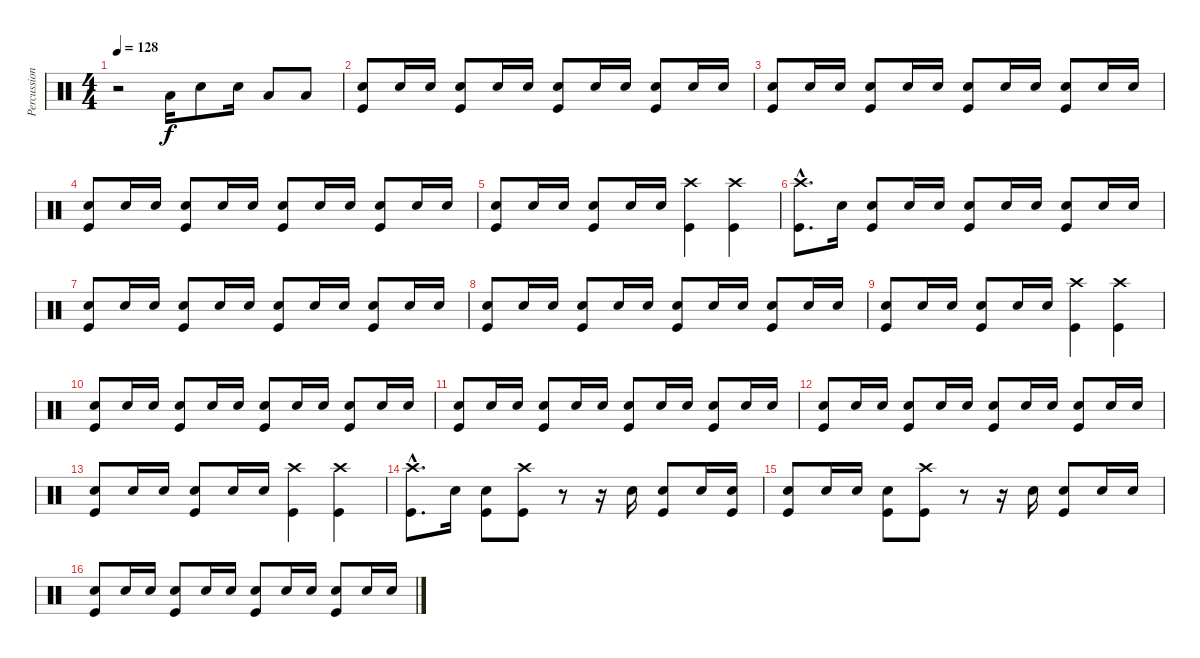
\track ("Percussion" "Percussion") {instrument percussion}
\staff {score}
\articulation defaults
\ts (4 4)
\tempo 128
\clef neutral
\ks c
r.2{dy f} "Low Tom (hit)".16 "Snare (hit) 2".8 "Snare (hit) 2".16 "Low Tom (hit)".8 "Low Tom (hit)".8 |
("Snare (hit) 2" "Kick (hit)").8 "Snare (hit) 2".16 "Snare (hit) 2".16 ("Snare (hit) 2" "Kick (hit)").8 "Snare (hit) 2".16 "Snare (hit) 2".16 ("Snare (hit) 2" "Kick (hit)").8 "Snare (hit) 2".16 "Snare (hit) 2".16 ("Snare (hit) 2" "Kick (hit)").8 "Snare (hit) 2".16 "Snare (hit) 2".16 |
("Snare (hit) 2" "Kick (hit)").8 "Snare (hit) 2".16 "Snare (hit) 2".16 ("Snare (hit) 2" "Kick (hit)").8 "Snare (hit) 2".16 "Snare (hit) 2".16 ("Snare (hit) 2" "Kick (hit)").8 "Snare (hit) 2".16 "Snare (hit) 2".16 ("Snare (hit) 2" "Kick (hit)").8 "Snare (hit) 2".16 "Snare (hit) 2".16 |
("Snare (hit) 2" "Kick (hit)").8 "Snare (hit) 2".16 "Snare (hit) 2".16 ("Snare (hit) 2" "Kick (hit)").8 "Snare (hit) 2".16 "Snare (hit) 2".16 ("Snare (hit) 2" "Kick (hit)").8 "Snare (hit) 2".16 "Snare (hit) 2".16 ("Snare (hit) 2" "Kick (hit)").8 "Snare (hit) 2".16 "Snare (hit) 2".16 |
("Snare (hit) 2" "Kick (hit)").8 "Snare (hit) 2".16 "Snare (hit) 2".16 ("Snare (hit) 2" "Kick (hit)").8 "Snare (hit) 2".16 "Snare (hit) 2".16 ("Crash high (hit)" "Kick (hit)").4 ("Crash high (hit)" "Kick (hit)").4 |
("Crash high (hit)"{hac} "Kick (hit)"{hac}).8{d} "Snare (hit) 2".16 ("Snare (hit) 2" "Kick (hit)").8 "Snare (hit) 2".16 "Snare (hit) 2".16 ("Snare (hit) 2" "Kick (hit)").8 "Snare (hit) 2".16 "Snare (hit) 2".16 ("Snare (hit) 2" "Kick (hit)").8 "Snare (hit) 2".16 "Snare (hit) 2".16 |
("Snare (hit) 2" "Kick (hit)").8 "Snare (hit) 2".16 "Snare (hit) 2".16 ("Snare (hit) 2" "Kick (hit)").8 "Snare (hit) 2".16 "Snare (hit) 2".16 ("Snare (hit) 2" "Kick (hit)").8 "Snare (hit) 2".16 "Snare (hit) 2".16 ("Snare (hit) 2" "Kick (hit)").8 "Snare (hit) 2".16 "Snare (hit) 2".16 |
("Snare (hit) 2" "Kick (hit)").8 "Snare (hit) 2".16 "Snare (hit) 2".16 ("Snare (hit) 2" "Kick (hit)").8 "Snare (hit) 2".16 "Snare (hit) 2".16 ("Snare (hit) 2" "Kick (hit)").8 "Snare (hit) 2".16 "Snare (hit) 2".16 ("Snare (hit) 2" "Kick (hit)").8 "Snare (hit) 2".16 "Snare (hit) 2".16 |
("Snare (hit) 2" "Kick (hit)").8 "Snare (hit) 2".16 "Snare (hit) 2".16 ("Snare (hit) 2" "Kick (hit)").8 "Snare (hit) 2".16 "Snare (hit) 2".16 ("Crash high (hit)" "Kick (hit)").4 ("Crash high (hit)" "Kick (hit)").4 |
("Snare (hit) 2" "Kick (hit)").8 "Snare (hit) 2".16 "Snare (hit) 2".16 ("Snare (hit) 2" "Kick (hit)").8 "Snare (hit) 2".16 "Snare (hit) 2".16 ("Snare (hit) 2" "Kick (hit)").8 "Snare (hit) 2".16 "Snare (hit) 2".16 ("Snare (hit) 2" "Kick (hit)").8 "Snare (hit) 2".16 "Snare (hit) 2".16 |
("Snare (hit) 2" "Kick (hit)").8 "Snare (hit) 2".16 "Snare (hit) 2".16 ("Snare (hit) 2" "Kick (hit)").8 "Snare (hit) 2".16 "Snare (hit) 2".16 ("Snare (hit) 2" "Kick (hit)").8 "Snare (hit) 2".16 "Snare (hit) 2".16 ("Snare (hit) 2" "Kick (hit)").8 "Snare (hit) 2".16 "Snare (hit) 2".16 |
("Snare (hit) 2" "Kick (hit)").8 "Snare (hit) 2".16 "Snare (hit) 2".16 ("Snare (hit) 2" "Kick (hit)").8 "Snare (hit) 2".16 "Snare (hit) 2".16 ("Snare (hit) 2" "Kick (hit)").8 "Snare (hit) 2".16 "Snare (hit) 2".16 ("Snare (hit) 2" "Kick (hit)").8 "Snare (hit) 2".16 "Snare (hit) 2".16 |
("Snare (hit) 2" "Kick (hit)").8 "Snare (hit) 2".16 "Snare (hit) 2".16 ("Snare (hit) 2" "Kick (hit)").8 "Snare (hit) 2".16 "Snare (hit) 2".16 ("Crash high (hit)" "Kick (hit)").4 ("Crash high (hit)" "Kick (hit)").4 |
("Crash high (hit)"{hac} "Kick (hit)"{hac}).8{d} "Snare (hit) 2".16 ("Snare (hit) 2" "Kick (hit)").8 ("Crash high (hit)" "Kick (hit)").8 r.8 r.16 "Snare (hit) 2".16 ("Snare (hit) 2" "Kick (hit)").8 "Snare (hit) 2".16 ("Snare (hit) 2" "Kick (hit)").16 |
("Snare (hit) 2" "Kick (hit)").8 "Snare (hit) 2".16 "Snare (hit) 2".16 ("Snare (hit) 2" "Kick (hit)").8 ("Crash high (hit)" "Kick (hit)").8 r.8 r.16 "Snare (hit) 2".16 ("Snare (hit) 2" "Kick (hit)").8 "Snare (hit) 2".16 "Snare (hit) 2".16 |
("Snare (hit) 2" "Kick (hit)").8 "Snare (hit) 2".16 "Snare (hit) 2".16 ("Snare (hit) 2" "Kick (hit)").8 "Snare (hit) 2".16 "Snare (hit) 2".16 ("Snare (hit) 2" "Kick (hit)").8 "Snare (hit) 2".16 "Snare (hit) 2".16 ("Snare (hit) 2" "Kick (hit)").8 "Snare (hit) 2".16 "Snare (hit) 2".16
